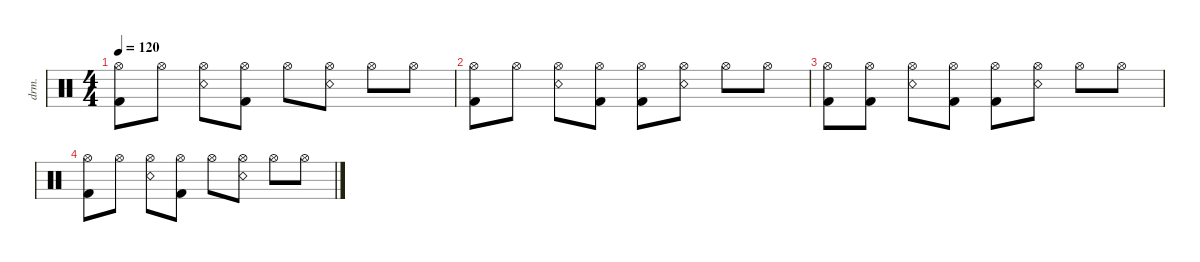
\defaultSystemsLayout 4
\hideDynamics
\bracketExtendMode nobrackets
\otherSystemsTrackNameOrientation horizontal
\track ("Drumkit" "drm.") {instrument percussion}
\staff {score}
\articulation defaults
\ts (4 4)
\tempo 120
\clef neutral
\ks c
("Kick (hit) 2" "Hi-Hat (open)").8{dy mf beam Down} "Hi-Hat (open)".8{beam Down} ("Hi-Hat (open)" "Snare (rim shot)").8{beam Down} ("Hi-Hat (open)" "Kick (hit) 2").8{beam Down} "Hi-Hat (open)".8{beam Down} ("Hi-Hat (open)" "Snare (rim shot)").8{beam Down} "Hi-Hat (open)".8{beam Down} "Hi-Hat (open)".8{beam Down} |
("Kick (hit) 2" "Hi-Hat (open)").8{beam Down} "Hi-Hat (open)".8{beam Down} ("Hi-Hat (open)" "Snare (rim shot)").8{beam Down} ("Hi-Hat (open)" "Kick (hit) 2").8{beam Down} ("Hi-Hat (open)" "Kick (hit) 2").8{beam Down} ("Hi-Hat (open)" "Snare (rim shot)").8{beam Down} "Hi-Hat (open)".8{beam Down} "Hi-Hat (open)".8{beam Down} |
("Kick (hit) 2" "Hi-Hat (open)").8{beam Down} ("Hi-Hat (open)" "Kick (hit) 2").8{beam Down} ("Hi-Hat (open)" "Snare (rim shot)").8{beam Down} ("Hi-Hat (open)" "Kick (hit) 2").8{beam Down} ("Hi-Hat (open)" "Kick (hit) 2").8{beam Down} ("Hi-Hat (open)" "Snare (rim shot)").8{beam Down} "Hi-Hat (open)".8{beam Down} "Hi-Hat (open)".8{beam Down} |
("Kick (hit) 2" "Hi-Hat (open)").8{beam Down} "Hi-Hat (open)".8{beam Down} ("Hi-Hat (open)" "Snare (rim shot)").8{beam Down} ("Hi-Hat (open)" "Kick (hit) 2").8{beam Down} "Hi-Hat (open)".8{beam Down} ("Hi-Hat (open)" "Snare (rim shot)").8{beam Down} "Hi-Hat (open)".8{beam Down} "Hi-Hat (open)".8{beam Down}
